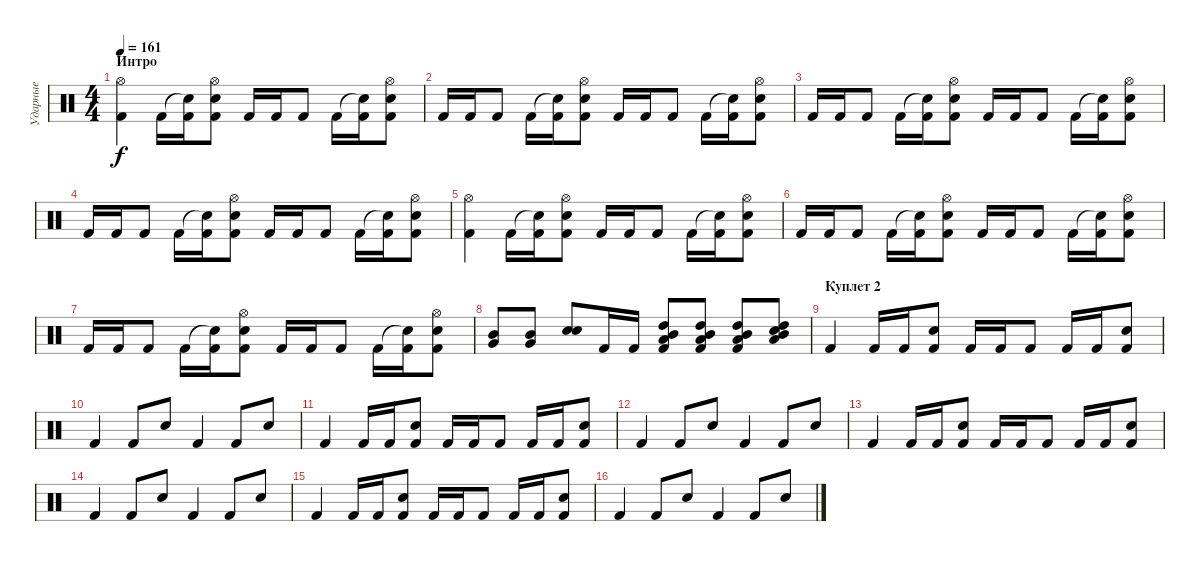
\track ("Ударные" "Ударные") {instrument percussion}
\staff {score}
\articulation defaults
\ts (4 4)
\section ("" "Интро")
\tempo 161
\clef neutral
\ks c
("Hi-Hat (open)" "Kick (hit) 2").4{dy f} "Kick (hit) 2".16 ("Snare (hit)"{t} "Kick (hit) 2").16 ("Hi-Hat (open)" "Snare (hit) 2" "Kick (hit) 2").8 "Kick (hit) 2".16 "Kick (hit) 2".16 "Kick (hit) 2".8 "Kick (hit) 2".16 ("Snare (hit)"{t} "Kick (hit) 2").16 ("Hi-Hat (open)" "Snare (hit) 2" "Kick (hit) 2").8 |
"Kick (hit) 2".16 "Kick (hit) 2".16 "Kick (hit) 2".8 "Kick (hit) 2".16 ("Snare (hit)"{t} "Kick (hit) 2").16 ("Hi-Hat (open)" "Snare (hit) 2" "Kick (hit) 2").8 "Kick (hit) 2".16 "Kick (hit) 2".16 "Kick (hit) 2".8 "Kick (hit) 2".16 ("Snare (hit)"{t} "Kick (hit) 2").16 ("Hi-Hat (open)" "Snare (hit) 2" "Kick (hit) 2").8 |
"Kick (hit) 2".16 "Kick (hit) 2".16 "Kick (hit) 2".8 "Kick (hit) 2".16 ("Snare (hit)"{t} "Kick (hit) 2").16 ("Hi-Hat (open)" "Snare (hit) 2" "Kick (hit) 2").8 "Kick (hit) 2".16 "Kick (hit) 2".16 "Kick (hit) 2".8 "Kick (hit) 2".16 ("Snare (hit)"{t} "Kick (hit) 2").16 ("Hi-Hat (open)" "Snare (hit) 2" "Kick (hit) 2").8 |
"Kick (hit) 2".16 "Kick (hit) 2".16 "Kick (hit) 2".8 "Kick (hit) 2".16 ("Snare (hit)"{t} "Kick (hit) 2").16 ("Hi-Hat (open)" "Snare (hit) 2" "Kick (hit) 2").8 "Kick (hit) 2".16 "Kick (hit) 2".16 "Kick (hit) 2".8 "Kick (hit) 2".16 ("Snare (hit)"{t} "Kick (hit) 2").16 ("Hi-Hat (open)" "Snare (hit) 2" "Kick (hit) 2").8 |
("Hi-Hat (open)" "Kick (hit) 2").4 "Kick (hit) 2".16 ("Snare (hit)"{t} "Kick (hit) 2").16 ("Hi-Hat (open)" "Snare (hit) 2" "Kick (hit) 2").8 "Kick (hit) 2".16 "Kick (hit) 2".16 "Kick (hit) 2".8 "Kick (hit) 2".16 ("Snare (hit)"{t} "Kick (hit) 2").16 ("Hi-Hat (open)" "Snare (hit) 2" "Kick (hit) 2").8 |
"Kick (hit) 2".16 "Kick (hit) 2".16 "Kick (hit) 2".8 "Kick (hit) 2".16 ("Snare (hit)"{t} "Kick (hit) 2").16 ("Hi-Hat (open)" "Snare (hit) 2" "Kick (hit) 2").8 "Kick (hit) 2".16 "Kick (hit) 2".16 "Kick (hit) 2".8 "Kick (hit) 2".16 ("Snare (hit)"{t} "Kick (hit) 2").16 ("Hi-Hat (open)" "Snare (hit) 2" "Kick (hit) 2").8 |
"Kick (hit) 2".16 "Kick (hit) 2".16 "Kick (hit) 2".8 "Kick (hit) 2".16 ("Snare (hit)"{t} "Kick (hit) 2").16 ("Hi-Hat (open)" "Snare (hit) 2" "Kick (hit) 2").8 "Kick (hit) 2".16 "Kick (hit) 2".16 "Kick (hit) 2".8 "Kick (hit) 2".16 ("Snare (hit)"{t} "Kick (hit) 2").16 ("Hi-Hat (open)" "Snare (hit) 2" "Kick (hit) 2").8 |
("Very Low Tom (hit)" "Mid Tom (hit)").8 ("Very Low Tom (hit)" "Mid Tom (hit)").8 ("Snare (hit) 2" "Snare (hit) 2").8 "Kick (hit) 2".16 "Kick (hit) 2".16 ("Mid Tom (hit)" "Low Tom (hit)" "Kick (hit) 2" "High Tom (hit)").8 ("Mid Tom (hit)" "Low Tom (hit)" "Kick (hit) 2" "High Tom (hit)").8 ("Mid Tom (hit)" "Low Tom (hit)" "Kick (hit) 2" "High Tom (hit)").8 ("Mid Tom (hit)" "Low Tom (hit)" "Snare (hit) 2" "High Tom (hit)").8 |
\section ("" "Куплет 2")
"Kick (hit) 2".4 "Kick (hit) 2".16 "Kick (hit) 2".16 ("Snare (hit) 2" "Kick (hit) 2").8 "Kick (hit) 2".16 "Kick (hit) 2".16 "Kick (hit) 2".8 "Kick (hit) 2".16 "Kick (hit) 2".16 ("Snare (hit) 2" "Kick (hit) 2").8 |
"Kick (hit) 2".4 "Kick (hit) 2".8 "Snare (hit) 2".8 "Kick (hit) 2".4 "Kick (hit) 2".8 "Snare (hit) 2".8 |
"Kick (hit) 2".4 "Kick (hit) 2".16 "Kick (hit) 2".16 ("Snare (hit) 2" "Kick (hit) 2").8 "Kick (hit) 2".16 "Kick (hit) 2".16 "Kick (hit) 2".8 "Kick (hit) 2".16 "Kick (hit) 2".16 ("Snare (hit) 2" "Kick (hit) 2").8 |
"Kick (hit) 2".4 "Kick (hit) 2".8 "Snare (hit) 2".8 "Kick (hit) 2".4 "Kick (hit) 2".8 "Snare (hit) 2".8 |
"Kick (hit) 2".4 "Kick (hit) 2".16 "Kick (hit) 2".16 ("Snare (hit) 2" "Kick (hit) 2").8 "Kick (hit) 2".16 "Kick (hit) 2".16 "Kick (hit) 2".8 "Kick (hit) 2".16 "Kick (hit) 2".16 ("Snare (hit) 2" "Kick (hit) 2").8 |
"Kick (hit) 2".4 "Kick (hit) 2".8 "Snare (hit) 2".8 "Kick (hit) 2".4 "Kick (hit) 2".8 "Snare (hit) 2".8 |
"Kick (hit) 2".4 "Kick (hit) 2".16 "Kick (hit) 2".16 ("Snare (hit) 2" "Kick (hit) 2").8 "Kick (hit) 2".16 "Kick (hit) 2".16 "Kick (hit) 2".8 "Kick (hit) 2".16 "Kick (hit) 2".16 ("Snare (hit) 2" "Kick (hit) 2").8 |
"Kick (hit) 2".4 "Kick (hit) 2".8 "Snare (hit) 2".8 "Kick (hit) 2".4 "Kick (hit) 2".8 "Snare (hit) 2".8
